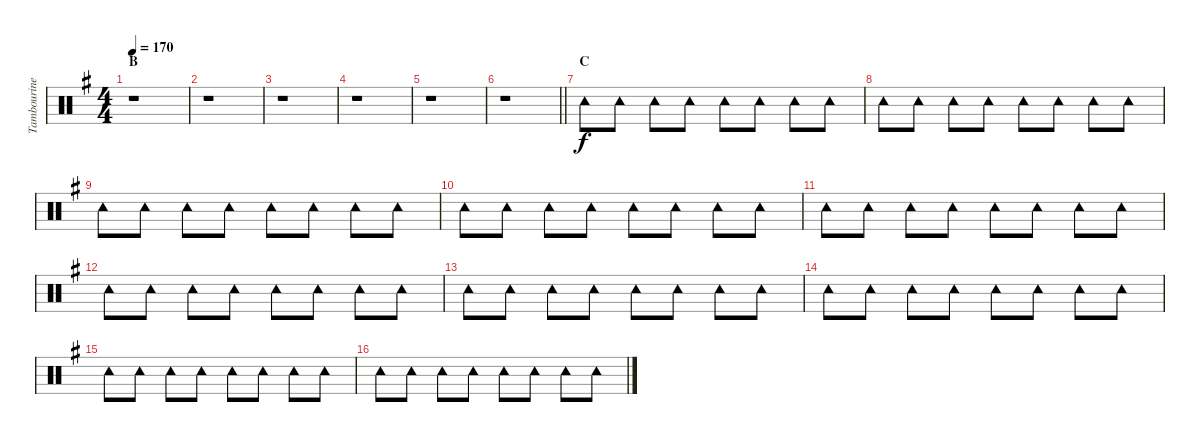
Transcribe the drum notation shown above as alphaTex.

\track ("Tambourine" "Tambourine") {instrument percussion}
\staff {score}
\articulation defaults
\ts (4 4)
\section ("" "B")
\tempo 170
\clef neutral
\ks g
r.1{dy f} |
r.1 |
r.1 |
r.1 |
r.1 |
\barLineRight lightlight
r.1 |
\section ("" "C")
"Tambourine (hit)".8 "Tambourine (hit)".8 "Tambourine (hit)".8 "Tambourine (hit)".8 "Tambourine (hit)".8 "Tambourine (hit)".8 "Tambourine (hit)".8 "Tambourine (hit)".8 |
"Tambourine (hit)".8 "Tambourine (hit)".8 "Tambourine (hit)".8 "Tambourine (hit)".8 "Tambourine (hit)".8 "Tambourine (hit)".8 "Tambourine (hit)".8 "Tambourine (hit)".8 |
"Tambourine (hit)".8 "Tambourine (hit)".8 "Tambourine (hit)".8 "Tambourine (hit)".8 "Tambourine (hit)".8 "Tambourine (hit)".8 "Tambourine (hit)".8 "Tambourine (hit)".8 |
"Tambourine (hit)".8 "Tambourine (hit)".8 "Tambourine (hit)".8 "Tambourine (hit)".8 "Tambourine (hit)".8 "Tambourine (hit)".8 "Tambourine (hit)".8 "Tambourine (hit)".8 |
"Tambourine (hit)".8 "Tambourine (hit)".8 "Tambourine (hit)".8 "Tambourine (hit)".8 "Tambourine (hit)".8 "Tambourine (hit)".8 "Tambourine (hit)".8 "Tambourine (hit)".8 |
"Tambourine (hit)".8 "Tambourine (hit)".8 "Tambourine (hit)".8 "Tambourine (hit)".8 "Tambourine (hit)".8 "Tambourine (hit)".8 "Tambourine (hit)".8 "Tambourine (hit)".8 |
"Tambourine (hit)".8 "Tambourine (hit)".8 "Tambourine (hit)".8 "Tambourine (hit)".8 "Tambourine (hit)".8 "Tambourine (hit)".8 "Tambourine (hit)".8 "Tambourine (hit)".8 |
"Tambourine (hit)".8 "Tambourine (hit)".8 "Tambourine (hit)".8 "Tambourine (hit)".8 "Tambourine (hit)".8 "Tambourine (hit)".8 "Tambourine (hit)".8 "Tambourine (hit)".8 |
"Tambourine (hit)".8 "Tambourine (hit)".8 "Tambourine (hit)".8 "Tambourine (hit)".8 "Tambourine (hit)".8 "Tambourine (hit)".8 "Tambourine (hit)".8 "Tambourine (hit)".8 |
"Tambourine (hit)".8 "Tambourine (hit)".8 "Tambourine (hit)".8 "Tambourine (hit)".8 "Tambourine (hit)".8 "Tambourine (hit)".8 "Tambourine (hit)".8 "Tambourine (hit)".8
